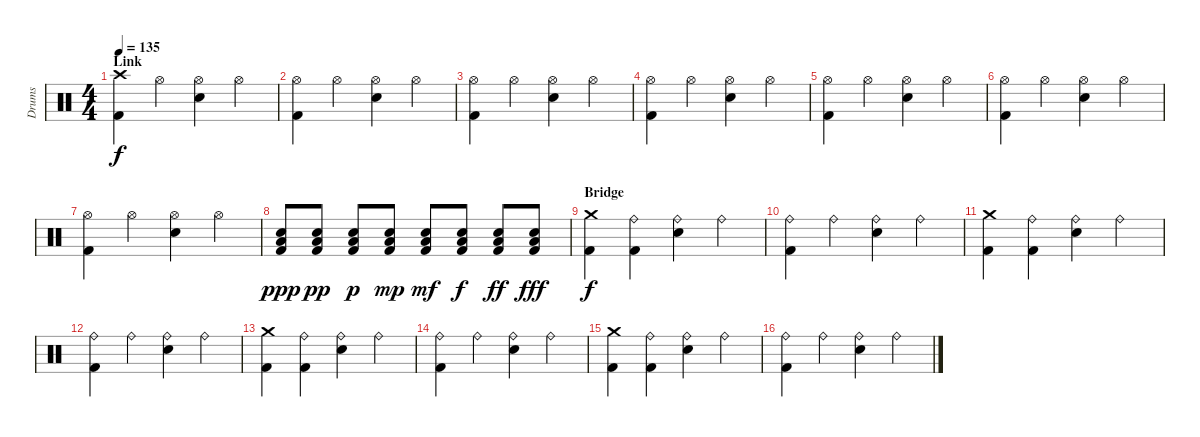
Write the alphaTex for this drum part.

\track ("Drums" "Drums") {instrument percussion}
\staff {score}
\articulation defaults
\ts (4 4)
\section ("" "Link")
\tempo 135
\clef neutral
\ks c
("Crash high (hit)" "Kick (hit) 2").4{dy f} "Hi-Hat (open)".4 ("Hi-Hat (open)" "Electric Snare (hit)").4 "Hi-Hat (open)".4 |
("Hi-Hat (open)" "Kick (hit) 2").4 "Hi-Hat (open)".4 ("Hi-Hat (open)" "Electric Snare (hit)").4 "Hi-Hat (open)".4 |
("Hi-Hat (open)" "Kick (hit) 2").4 "Hi-Hat (open)".4 ("Hi-Hat (open)" "Electric Snare (hit)").4 "Hi-Hat (open)".4 |
("Hi-Hat (open)" "Kick (hit) 2").4 "Hi-Hat (open)".4 ("Hi-Hat (open)" "Electric Snare (hit)").4 "Hi-Hat (open)".4 |
("Hi-Hat (open)" "Kick (hit) 2").4 "Hi-Hat (open)".4 ("Hi-Hat (open)" "Electric Snare (hit)").4 "Hi-Hat (open)".4 |
("Hi-Hat (open)" "Kick (hit) 2").4 "Hi-Hat (open)".4 ("Hi-Hat (open)" "Electric Snare (hit)").4 "Hi-Hat (open)".4 |
("Hi-Hat (open)" "Kick (hit) 2").4 "Hi-Hat (open)".4 ("Hi-Hat (open)" "Electric Snare (hit)").4 "Hi-Hat (open)".4 |
("Electric Snare (hit)" "Low Floor Tom (hit)" "Kick (hit) 2").8{dy ppp} ("Electric Snare (hit)" "Low Floor Tom (hit)" "Kick (hit) 2").8{dy pp} ("Electric Snare (hit)" "Low Floor Tom (hit)" "Kick (hit) 2").8{dy p} ("Electric Snare (hit)" "Low Floor Tom (hit)" "Kick (hit) 2").8{dy mp} ("Electric Snare (hit)" "Low Floor Tom (hit)" "Kick (hit) 2").8{dy mf} ("Electric Snare (hit)" "Low Floor Tom (hit)" "Kick (hit) 2").8{dy f} ("Electric Snare (hit)" "Low Floor Tom (hit)" "Kick (hit) 2").8{dy ff} ("Electric Snare (hit)" "Low Floor Tom (hit)" "Kick (hit) 2").8{dy fff} |
\section ("" "Bridge")
("Crash medium (hit)" "Kick (hit) 2").4{dy f} ("Ride (bell)" "Kick (hit) 2").4 ("Ride (bell)" "Electric Snare (hit)").4 "Ride (bell)".4 |
("Ride (bell)" "Kick (hit) 2").4 "Ride (bell)".4 ("Ride (bell)" "Electric Snare (hit)").4 "Ride (bell)".4 |
("Crash medium (hit)" "Kick (hit) 2").4 ("Ride (bell)" "Kick (hit) 2").4 ("Ride (bell)" "Electric Snare (hit)").4 "Ride (bell)".4 |
("Ride (bell)" "Kick (hit) 2").4 "Ride (bell)".4 ("Ride (bell)" "Electric Snare (hit)").4 "Ride (bell)".4 |
("Crash medium (hit)" "Kick (hit) 2").4 ("Ride (bell)" "Kick (hit) 2").4 ("Ride (bell)" "Electric Snare (hit)").4 "Ride (bell)".4 |
("Ride (bell)" "Kick (hit) 2").4 "Ride (bell)".4 ("Ride (bell)" "Electric Snare (hit)").4 "Ride (bell)".4 |
("Crash medium (hit)" "Kick (hit) 2").4 ("Ride (bell)" "Kick (hit) 2").4 ("Ride (bell)" "Electric Snare (hit)").4 "Ride (bell)".4 |
("Ride (bell)" "Kick (hit) 2").4 "Ride (bell)".4 ("Ride (bell)" "Electric Snare (hit)").4 "Ride (bell)".4
